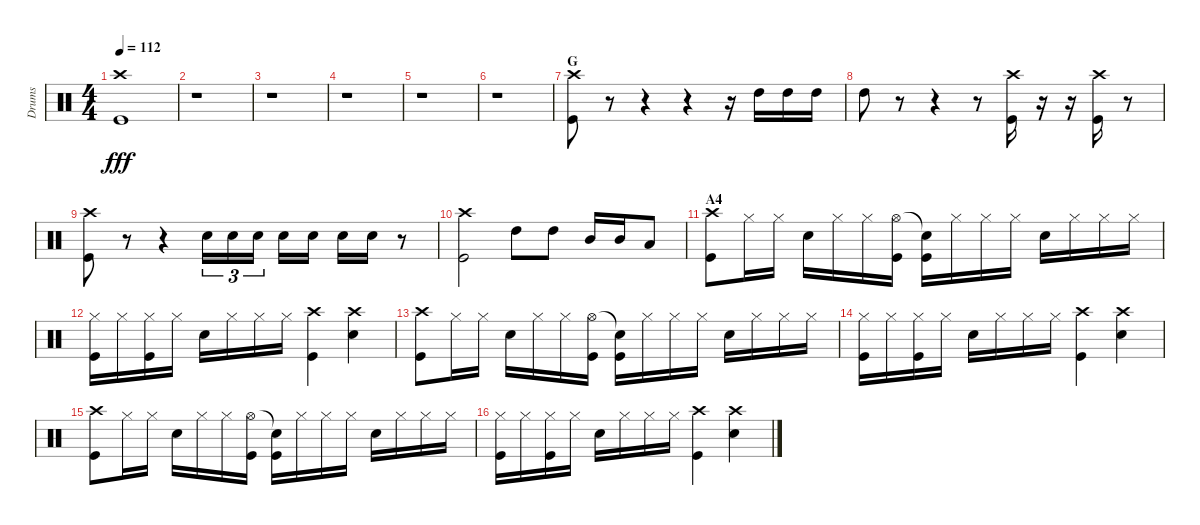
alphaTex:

\track ("Drums" "Drums") {instrument percussion}
\staff {score}
\articulation defaults
\ts (4 4)
\tempo 112
\clef neutral
\ks c
("Crash high (hit)" "Kick (hit)").1{dy fff} |
r.1 |
r.1 |
r.1 |
r.1 |
r.1 |
\section ("" "G")
("Crash high (hit)" "Kick (hit)").8 r.8 r.4 r.4 r.16 "High Tom (hit)".16 "High Tom (hit)".16 "High Tom (hit)".16 |
"High Tom (hit)".8 r.8 r.4 r.8 ("Crash high (hit)" "Kick (hit)").16 r.16 r.16 ("Crash high (hit)" "Kick (hit)").16 r.8 |
("Crash high (hit)" "Kick (hit)").8 r.8 r.4 "Snare (hit) 2".16{tu (3 2)} "Snare (hit) 2".16{tu (3 2)} "Snare (hit) 2".16{tu (3 2)} "Snare (hit) 2".16 "Snare (hit) 2".16 "Snare (hit) 2".16 "Snare (hit) 2".16 r.8 |
("Crash high (hit)" "Kick (hit)").2 "High Tom (hit)".8 "High Tom (hit)".8 "Mid Tom (hit)".16 "Mid Tom (hit)".16 "Low Tom (hit)".8 |
\section ("" "A4")
("Crash high (hit)" "Kick (hit)").8 "Hi-Hat (closed)".16 "Hi-Hat (closed)".16 "Snare (hit) 2".16 "Hi-Hat (closed)".16 "Hi-Hat (closed)".16 ("Hi-Hat (open)" "Kick (hit)").16 ("Snare (hit)"{t} "Kick (hit)").16 "Hi-Hat (closed)".16 "Hi-Hat (closed)".16 "Hi-Hat (closed)".16 "Snare (hit) 2".16 "Hi-Hat (closed)".16 "Hi-Hat (closed)".16 "Hi-Hat (closed)".16 |
("Hi-Hat (closed)" "Kick (hit)").16 "Hi-Hat (closed)".16 ("Hi-Hat (closed)" "Kick (hit)").16 "Hi-Hat (closed)".16 "Snare (hit) 2".16 "Hi-Hat (closed)".16 "Hi-Hat (closed)".16 "Hi-Hat (closed)".16 ("Crash high (hit)" "Kick (hit)").4 ("Crash high (hit)" "Snare (hit) 2").4 |
("Crash high (hit)" "Kick (hit)").8 "Hi-Hat (closed)".16 "Hi-Hat (closed)".16 "Snare (hit) 2".16 "Hi-Hat (closed)".16 "Hi-Hat (closed)".16 ("Hi-Hat (open)" "Kick (hit)").16 ("Snare (hit)"{t} "Kick (hit)").16 "Hi-Hat (closed)".16 "Hi-Hat (closed)".16 "Hi-Hat (closed)".16 "Snare (hit) 2".16 "Hi-Hat (closed)".16 "Hi-Hat (closed)".16 "Hi-Hat (closed)".16 |
("Hi-Hat (closed)" "Kick (hit)").16 "Hi-Hat (closed)".16 ("Hi-Hat (closed)" "Kick (hit)").16 "Hi-Hat (closed)".16 "Snare (hit) 2".16 "Hi-Hat (closed)".16 "Hi-Hat (closed)".16 "Hi-Hat (closed)".16 ("Crash high (hit)" "Kick (hit)").4 ("Crash high (hit)" "Snare (hit) 2").4 |
("Crash high (hit)" "Kick (hit)").8 "Hi-Hat (closed)".16 "Hi-Hat (closed)".16 "Snare (hit) 2".16 "Hi-Hat (closed)".16 "Hi-Hat (closed)".16 ("Hi-Hat (open)" "Kick (hit)").16 ("Snare (hit)"{t} "Kick (hit)").16 "Hi-Hat (closed)".16 "Hi-Hat (closed)".16 "Hi-Hat (closed)".16 "Snare (hit) 2".16 "Hi-Hat (closed)".16 "Hi-Hat (closed)".16 "Hi-Hat (closed)".16 |
("Hi-Hat (closed)" "Kick (hit)").16 "Hi-Hat (closed)".16 ("Hi-Hat (closed)" "Kick (hit)").16 "Hi-Hat (closed)".16 "Snare (hit) 2".16 "Hi-Hat (closed)".16 "Hi-Hat (closed)".16 "Hi-Hat (closed)".16 ("Crash high (hit)" "Kick (hit)").4 ("Crash high (hit)" "Snare (hit) 2").4
